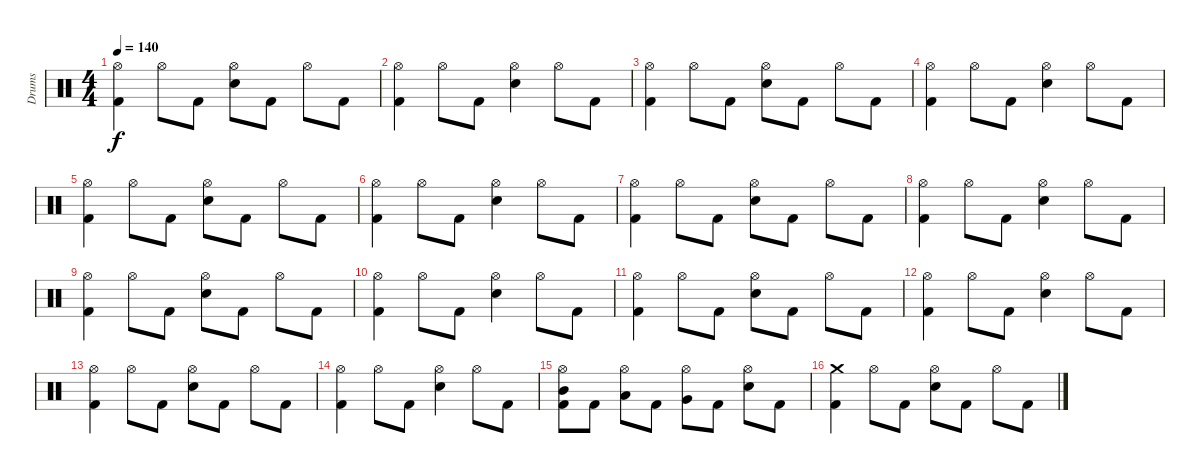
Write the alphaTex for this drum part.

\track ("Drums" "Drums") {instrument percussion}
\staff {score}
\articulation defaults
\ts (4 4)
\tempo 140
\clef neutral
\ks c
("Hi-Hat (open)" "Kick (hit) 2").4{dy f} "Hi-Hat (open)".8 "Kick (hit) 2".8 ("Hi-Hat (open)" "Electric Snare (hit)").8 "Kick (hit) 2".8 "Hi-Hat (open)".8 "Kick (hit) 2".8 |
("Hi-Hat (open)" "Kick (hit) 2").4 "Hi-Hat (open)".8 "Kick (hit) 2".8 ("Hi-Hat (open)" "Electric Snare (hit)").4 "Hi-Hat (open)".8 "Kick (hit) 2".8 |
("Hi-Hat (open)" "Kick (hit) 2").4 "Hi-Hat (open)".8 "Kick (hit) 2".8 ("Hi-Hat (open)" "Electric Snare (hit)").8 "Kick (hit) 2".8 "Hi-Hat (open)".8 "Kick (hit) 2".8 |
("Hi-Hat (open)" "Kick (hit) 2").4 "Hi-Hat (open)".8 "Kick (hit) 2".8 ("Hi-Hat (open)" "Electric Snare (hit)").4 "Hi-Hat (open)".8 "Kick (hit) 2".8 |
("Hi-Hat (open)" "Kick (hit) 2").4 "Hi-Hat (open)".8 "Kick (hit) 2".8 ("Hi-Hat (open)" "Electric Snare (hit)").8 "Kick (hit) 2".8 "Hi-Hat (open)".8 "Kick (hit) 2".8 |
("Hi-Hat (open)" "Kick (hit) 2").4 "Hi-Hat (open)".8 "Kick (hit) 2".8 ("Hi-Hat (open)" "Electric Snare (hit)").4 "Hi-Hat (open)".8 "Kick (hit) 2".8 |
("Hi-Hat (open)" "Kick (hit) 2").4 "Hi-Hat (open)".8 "Kick (hit) 2".8 ("Hi-Hat (open)" "Electric Snare (hit)").8 "Kick (hit) 2".8 "Hi-Hat (open)".8 "Kick (hit) 2".8 |
("Hi-Hat (open)" "Kick (hit) 2").4 "Hi-Hat (open)".8 "Kick (hit) 2".8 ("Hi-Hat (open)" "Electric Snare (hit)").4 "Hi-Hat (open)".8 "Kick (hit) 2".8 |
("Hi-Hat (open)" "Kick (hit) 2").4 "Hi-Hat (open)".8 "Kick (hit) 2".8 ("Hi-Hat (open)" "Electric Snare (hit)").8 "Kick (hit) 2".8 "Hi-Hat (open)".8 "Kick (hit) 2".8 |
("Hi-Hat (open)" "Kick (hit) 2").4 "Hi-Hat (open)".8 "Kick (hit) 2".8 ("Hi-Hat (open)" "Electric Snare (hit)").4 "Hi-Hat (open)".8 "Kick (hit) 2".8 |
("Hi-Hat (open)" "Kick (hit) 2").4 "Hi-Hat (open)".8 "Kick (hit) 2".8 ("Hi-Hat (open)" "Electric Snare (hit)").8 "Kick (hit) 2".8 "Hi-Hat (open)".8 "Kick (hit) 2".8 |
("Hi-Hat (open)" "Kick (hit) 2").4 "Hi-Hat (open)".8 "Kick (hit) 2".8 ("Hi-Hat (open)" "Electric Snare (hit)").4 "Hi-Hat (open)".8 "Kick (hit) 2".8 |
("Hi-Hat (open)" "Kick (hit) 2").4 "Hi-Hat (open)".8 "Kick (hit) 2".8 ("Hi-Hat (open)" "Electric Snare (hit)").8 "Kick (hit) 2".8 "Hi-Hat (open)".8 "Kick (hit) 2".8 |
("Hi-Hat (open)" "Kick (hit) 2").4 "Hi-Hat (open)".8 "Kick (hit) 2".8 ("Hi-Hat (open)" "Electric Snare (hit)").4 "Hi-Hat (open)".8 "Kick (hit) 2".8 |
("Mid Tom (hit)" "Hi-Hat (open)" "Kick (hit) 2").8 "Kick (hit) 2".8 ("Low Tom (hit)" "Hi-Hat (open)").8 "Kick (hit) 2".8 ("Very Low Tom (hit)" "Hi-Hat (open)").8 "Kick (hit) 2".8 ("Electric Snare (hit)" "Hi-Hat (open)").8 "Kick (hit) 2".8 |
("Crash medium (hit)" "Kick (hit) 2").4 "Hi-Hat (open)".8 "Kick (hit) 2".8 ("Hi-Hat (open)" "Electric Snare (hit)").8 "Kick (hit) 2".8 "Hi-Hat (open)".8 "Kick (hit) 2".8
